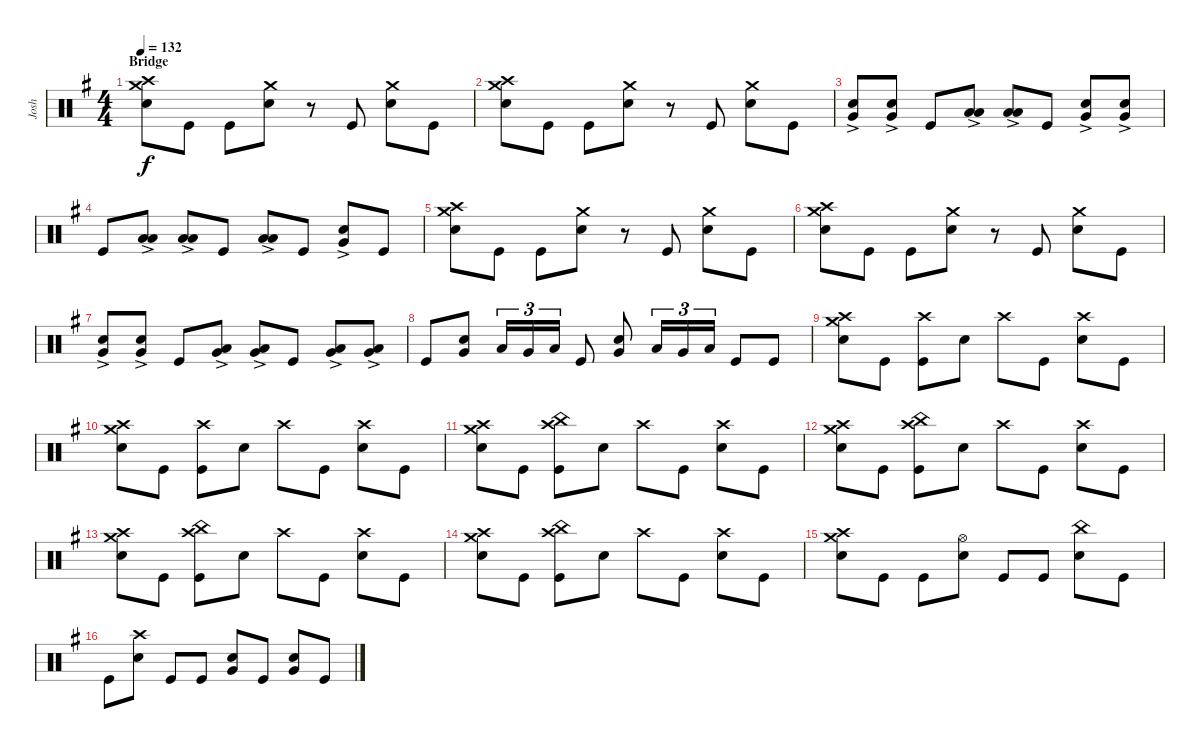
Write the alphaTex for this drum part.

\track ("Josh" "Josh") {instrument percussion}
\staff {score}
\articulation defaults
\ts (4 4)
\section ("" "Bridge")
\tempo 132
\clef neutral
\ks g
("Snare (hit) 2" "Crash high (hit)" "Crash medium (hit)").8{dy f} "Kick (hit)".8 "Kick (hit)".8 ("Snare (hit) 2" "Crash medium (hit)").8 r.8 "Kick (hit)".8 ("Snare (hit) 2" "Crash medium (hit)").8 "Kick (hit)".8 |
("Snare (hit) 2" "Crash high (hit)" "Crash medium (hit)").8 "Kick (hit)".8 "Kick (hit)".8 ("Snare (hit) 2" "Crash medium (hit)").8 r.8 "Kick (hit)".8 ("Snare (hit) 2" "Crash medium (hit)").8 "Kick (hit)".8 |
("Snare (hit) 2"{ac} "Very Low Tom (hit)"{ac}).8 ("Snare (hit) 2"{ac} "Very Low Tom (hit)"{ac}).8 "Kick (hit)".8 ("Low Tom (hit)"{ac} "Low Floor Tom (hit)"{ac}).8 ("Low Tom (hit)"{ac} "Low Floor Tom (hit)"{ac}).8 "Kick (hit)".8 ("Snare (hit) 2"{ac} "Very Low Tom (hit)"{ac}).8 ("Snare (hit) 2"{ac} "Very Low Tom (hit)"{ac}).8 |
"Kick (hit)".8 ("Low Tom (hit)"{ac} "Low Floor Tom (hit)"{ac}).8 ("Low Tom (hit)"{ac} "Low Floor Tom (hit)"{ac}).8 "Kick (hit)".8 ("Low Tom (hit)"{ac} "Low Floor Tom (hit)"{ac}).8 "Kick (hit)".8 ("Snare (hit) 2"{ac} "Very Low Tom (hit)"{ac}).8 "Kick (hit)".8 |
("Snare (hit) 2" "Crash high (hit)" "Crash medium (hit)").8 "Kick (hit)".8 "Kick (hit)".8 ("Snare (hit) 2" "Crash medium (hit)").8 r.8 "Kick (hit)".8 ("Snare (hit) 2" "Crash medium (hit)").8 "Kick (hit)".8 |
("Snare (hit) 2" "Crash high (hit)" "Crash medium (hit)").8 "Kick (hit)".8 "Kick (hit)".8 ("Snare (hit) 2" "Crash medium (hit)").8 r.8 "Kick (hit)".8 ("Snare (hit) 2" "Crash medium (hit)").8 "Kick (hit)".8 |
("Snare (hit) 2"{ac} "Very Low Tom (hit)"{ac}).8 ("Snare (hit) 2"{ac} "Very Low Tom (hit)"{ac}).8 "Kick (hit)".8 ("Low Floor Tom (hit)"{ac} "Very Low Tom (hit)"{ac}).8 ("Low Floor Tom (hit)"{ac} "Very Low Tom (hit)"{ac}).8 "Kick (hit)".8 ("Low Floor Tom (hit)"{ac} "Very Low Tom (hit)"{ac}).8 ("Low Floor Tom (hit)"{ac} "Very Low Tom (hit)"{ac}).8 |
"Kick (hit)".8 ("Snare (hit) 2" "Very Low Tom (hit)").8 "Low Tom (hit)".16{tu (3 2)} "Very Low Tom (hit)".16{tu (3 2)} "Low Floor Tom (hit)".16{tu (3 2)} "Kick (hit)".8 ("Snare (hit) 2" "Very Low Tom (hit)").8 "Low Tom (hit)".16{tu (3 2)} "Very Low Tom (hit)".16{tu (3 2)} "Low Floor Tom (hit)".16{tu (3 2)} "Kick (hit)".8 "Kick (hit)".8 |
("Snare (hit) 2" "Crash high (hit)" "Crash medium (hit)").8 "Kick (hit)".8 ("Kick (hit)" "Crash high (hit)").8 "Snare (hit) 2".8 "Crash high (hit)".8 "Kick (hit)".8 ("Snare (hit) 2" "Crash high (hit)").8 "Kick (hit)".8 |
("Snare (hit) 2" "Crash high (hit)" "Crash medium (hit)").8 "Kick (hit)".8 ("Kick (hit)" "Crash high (hit)").8 "Snare (hit) 2".8 "Crash high (hit)".8 "Kick (hit)".8 ("Snare (hit) 2" "Crash high (hit)").8 "Kick (hit)".8 |
("Snare (hit) 2" "Crash high (hit)" "Crash medium (hit)").8 "Kick (hit)".8 ("Kick (hit)" "Crash high (hit)" "China (hit)").8 "Snare (hit) 2".8 "Crash high (hit)".8 "Kick (hit)".8 ("Snare (hit) 2" "Crash high (hit)").8 "Kick (hit)".8 |
("Snare (hit) 2" "Crash high (hit)" "Crash medium (hit)").8 "Kick (hit)".8 ("Kick (hit)" "Crash high (hit)" "China (hit)").8 "Snare (hit) 2".8 "Crash high (hit)".8 "Kick (hit)".8 ("Snare (hit) 2" "Crash high (hit)").8 "Kick (hit)".8 |
("Snare (hit) 2" "Crash high (hit)" "Crash medium (hit)").8 "Kick (hit)".8 ("Kick (hit)" "Crash high (hit)" "China (hit)").8 "Snare (hit) 2".8 "Crash high (hit)".8 "Kick (hit)".8 ("Snare (hit) 2" "Crash high (hit)").8 "Kick (hit)".8 |
("Snare (hit) 2" "Crash high (hit)" "Crash medium (hit)").8 "Kick (hit)".8 ("Kick (hit)" "Crash high (hit)" "China (hit)").8 "Snare (hit) 2".8 "Crash high (hit)".8 "Kick (hit)".8 ("Snare (hit) 2" "Crash high (hit)").8 "Kick (hit)".8 |
("Snare (hit) 2" "Crash high (hit)" "Crash medium (hit)").8 "Kick (hit)".8 "Kick (hit)".8 ("Snare (hit) 2" "Hi-Hat (open)").8 "Kick (hit)".8 "Kick (hit)".8 ("Snare (hit) 2" "China (hit)").8 "Kick (hit)".8 |
"Kick (hit)".8 ("Snare (hit) 2" "Crash high (hit)").8 "Kick (hit)".8 "Kick (hit)".8 ("Snare (hit) 2" "Very Low Tom (hit)").8 "Kick (hit)".8 ("Snare (hit) 2" "Very Low Tom (hit)").8 "Kick (hit)".8
